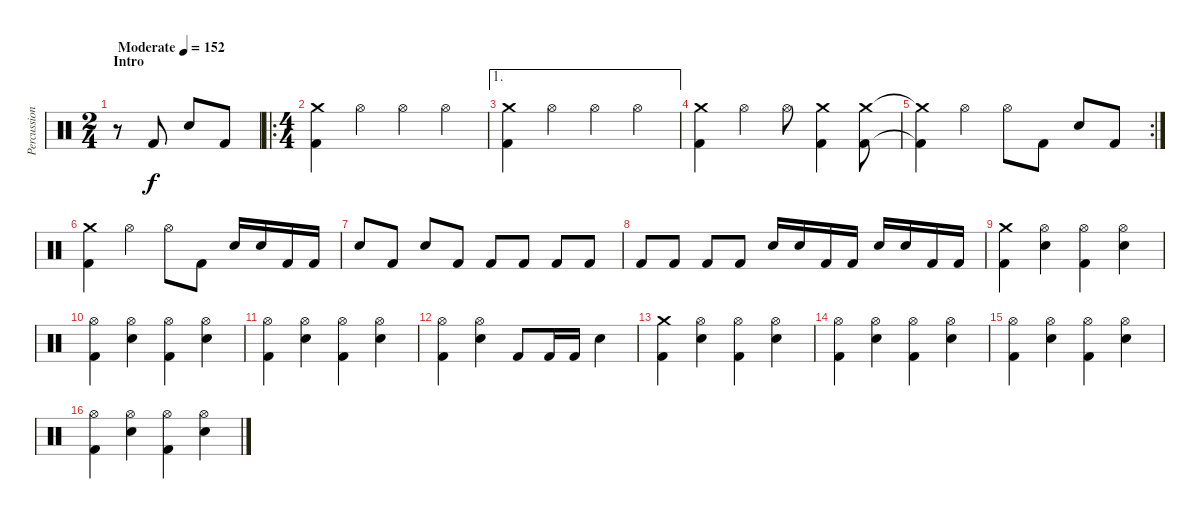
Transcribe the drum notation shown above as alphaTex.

\track ("Percussion" "Percussion") {instrument percussion}
\staff {score}
\articulation defaults
\ts (2 4)
\section ("" "Intro")
\tempo (152 "Moderate")
\clef neutral
\ks c
r.8{dy f} "Kick (hit) 2".8 "Electric Snare (hit)".8 "Kick (hit) 2".8 |
\ro
\ts (4 4)
("Crash medium (hit)" "Kick (hit) 2").4 "Hi-Hat (open)".4 "Hi-Hat (open)".4 "Hi-Hat (open)".4 |
\ae 1
("Crash medium (hit)" "Kick (hit) 2").4 "Hi-Hat (open)".4 "Hi-Hat (open)".4 "Hi-Hat (open)".4 |
("Crash medium (hit)" "Kick (hit) 2").4 "Hi-Hat (open)".4 "Hi-Hat (open)".8 ("Crash medium (hit)" "Kick (hit) 2").4 ("Crash medium (hit)" "Kick (hit) 2").8 |
\rc 2
("Crash medium (hit)"{t} "Kick (hit) 2"{t}).4 "Hi-Hat (open)".4 "Hi-Hat (open)".8 "Kick (hit) 2".8 "Electric Snare (hit)".8 "Kick (hit) 2".8 |
("Crash medium (hit)" "Kick (hit) 2").4 "Hi-Hat (open)".4 "Hi-Hat (open)".8 "Kick (hit) 2".8 "Electric Snare (hit)".16 "Electric Snare (hit)".16 "Kick (hit) 2".16 "Kick (hit) 2".16 |
"Electric Snare (hit)".8 "Kick (hit) 2".8 "Electric Snare (hit)".8 "Kick (hit) 2".8 "Kick (hit) 2".8 "Kick (hit) 2".8 "Kick (hit) 2".8 "Kick (hit) 2".8 |
"Kick (hit) 2".8 "Kick (hit) 2".8 "Kick (hit) 2".8 "Kick (hit) 2".8 "Electric Snare (hit)".16 "Electric Snare (hit)".16 "Kick (hit) 2".16 "Kick (hit) 2".16 "Electric Snare (hit)".16 "Electric Snare (hit)".16 "Kick (hit) 2".16 "Kick (hit) 2".16 |
("Crash medium (hit)" "Kick (hit) 2").4 ("Hi-Hat (open)" "Electric Snare (hit)").4 ("Hi-Hat (open)" "Kick (hit) 2").4 ("Hi-Hat (open)" "Electric Snare (hit)").4 |
("Hi-Hat (open)" "Kick (hit) 2").4 ("Hi-Hat (open)" "Electric Snare (hit)").4 ("Hi-Hat (open)" "Kick (hit) 2").4 ("Hi-Hat (open)" "Electric Snare (hit)").4 |
("Hi-Hat (open)" "Kick (hit) 2").4 ("Hi-Hat (open)" "Electric Snare (hit)").4 ("Hi-Hat (open)" "Kick (hit) 2").4 ("Hi-Hat (open)" "Electric Snare (hit)").4 |
("Hi-Hat (open)" "Kick (hit) 2").4 ("Hi-Hat (open)" "Electric Snare (hit)").4 "Kick (hit) 2".8 "Kick (hit) 2".16 "Kick (hit) 2".16 "Electric Snare (hit)".4 |
("Crash medium (hit)" "Kick (hit) 2").4 ("Hi-Hat (open)" "Electric Snare (hit)").4 ("Hi-Hat (open)" "Kick (hit) 2").4 ("Hi-Hat (open)" "Electric Snare (hit)").4 |
("Hi-Hat (open)" "Kick (hit) 2").4 ("Hi-Hat (open)" "Electric Snare (hit)").4 ("Hi-Hat (open)" "Kick (hit) 2").4 ("Hi-Hat (open)" "Electric Snare (hit)").4 |
("Hi-Hat (open)" "Kick (hit) 2").4 ("Hi-Hat (open)" "Electric Snare (hit)").4 ("Hi-Hat (open)" "Kick (hit) 2").4 ("Hi-Hat (open)" "Electric Snare (hit)").4 |
("Hi-Hat (open)" "Kick (hit) 2").4 ("Hi-Hat (open)" "Electric Snare (hit)").4 ("Hi-Hat (open)" "Kick (hit) 2").4 ("Hi-Hat (open)" "Electric Snare (hit)").4
